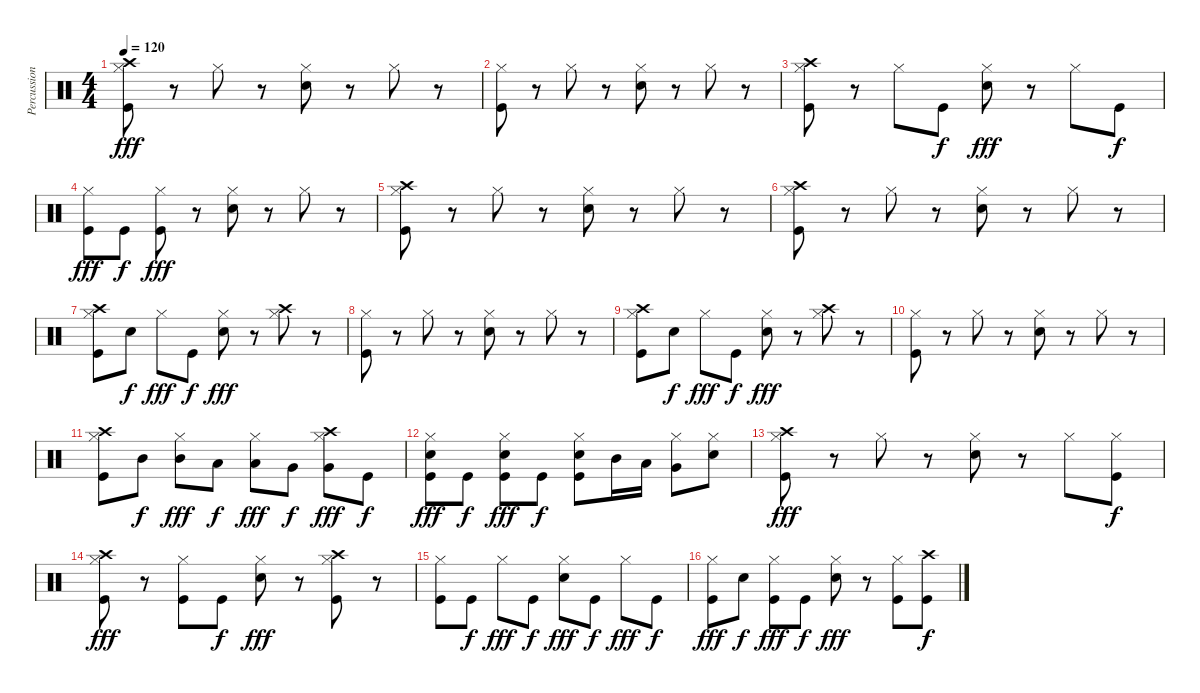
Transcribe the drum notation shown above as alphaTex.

\track ("Percussion" "Percussion") {instrument percussion}
\staff {score}
\articulation defaults
\ts (4 4)
\tempo 120
\clef neutral
\ks c
("Hi-Hat (closed)" "Crash high (hit)" "Kick (hit)").8{dy fff} r.8 "Hi-Hat (closed)".8 r.8 ("Hi-Hat (closed)" "Snare (hit) 2").8 r.8 "Hi-Hat (closed)".8 r.8 |
("Hi-Hat (closed)" "Kick (hit)").8 r.8 "Hi-Hat (closed)".8 r.8 ("Hi-Hat (closed)" "Snare (hit) 2").8 r.8 "Hi-Hat (closed)".8 r.8 |
("Hi-Hat (closed)" "Crash high (hit)" "Kick (hit)").8 r.8 "Hi-Hat (closed)".8 "Kick (hit)".8{dy f} ("Hi-Hat (closed)" "Snare (hit) 2").8{dy fff} r.8 "Hi-Hat (closed)".8 "Kick (hit)".8{dy f} |
("Hi-Hat (closed)" "Kick (hit)").8{dy fff} "Kick (hit)".8{dy f} ("Hi-Hat (closed)" "Kick (hit)").8{dy fff} r.8 ("Hi-Hat (closed)" "Snare (hit) 2").8 r.8 "Hi-Hat (closed)".8 r.8 |
("Hi-Hat (closed)" "Crash high (hit)" "Kick (hit)").8 r.8 "Hi-Hat (closed)".8 r.8 ("Hi-Hat (closed)" "Snare (hit) 2").8 r.8 "Hi-Hat (closed)".8 r.8 |
("Hi-Hat (closed)" "Crash high (hit)" "Kick (hit)").8 r.8 "Hi-Hat (closed)".8 r.8 ("Hi-Hat (closed)" "Snare (hit) 2").8 r.8 "Hi-Hat (closed)".8 r.8 |
("Hi-Hat (closed)" "Crash high (hit)" "Kick (hit)").8 "Snare (hit) 2".8{dy f} "Hi-Hat (closed)".8{dy fff} "Kick (hit)".8{dy f} ("Hi-Hat (closed)" "Snare (hit) 2").8{dy fff} r.8 ("Hi-Hat (closed)" "Crash high (hit)").8 r.8 |
("Hi-Hat (closed)" "Kick (hit)").8 r.8 "Hi-Hat (closed)".8 r.8 ("Hi-Hat (closed)" "Snare (hit) 2").8 r.8 "Hi-Hat (closed)".8 r.8 |
("Hi-Hat (closed)" "Crash high (hit)" "Kick (hit)").8 "Snare (hit) 2".8{dy f} "Hi-Hat (closed)".8{dy fff} "Kick (hit)".8{dy f} ("Hi-Hat (closed)" "Snare (hit) 2").8{dy fff} r.8 ("Hi-Hat (closed)" "Crash high (hit)").8 r.8 |
("Hi-Hat (closed)" "Kick (hit)").8 r.8 "Hi-Hat (closed)".8 r.8 ("Hi-Hat (closed)" "Snare (hit) 2").8 r.8 "Hi-Hat (closed)".8 r.8 |
("Hi-Hat (closed)" "Crash high (hit)" "Kick (hit)").8 "Mid Tom (hit)".8{dy f} ("Hi-Hat (closed)" "Mid Tom (hit)").8{dy fff} "Low Tom (hit)".8{dy f} ("Hi-Hat (closed)" "Low Tom (hit)").8{dy fff} "Very Low Tom (hit)".8{dy f} ("Hi-Hat (closed)" "Crash high (hit)" "Very Low Tom (hit)").8{dy fff} "Kick (hit)".8{dy f} |
("Hi-Hat (closed)" "Snare (hit) 2" "Kick (hit)").8{dy fff} "Kick (hit)".8{dy f} ("Hi-Hat (closed)" "Snare (hit) 2" "Kick (hit)").8{dy fff} "Kick (hit)".8{dy f} ("Hi-Hat (closed)" "Snare (hit) 2" "Kick (hit)").8 "Mid Tom (hit)".16 "Low Tom (hit)".16 ("Hi-Hat (closed)" "Very Low Tom (hit)").8 ("Hi-Hat (closed)" "Snare (hit) 2").8 |
("Hi-Hat (closed)" "Crash high (hit)" "Kick (hit)").8{dy fff} r.8 "Hi-Hat (closed)".8 r.8 ("Hi-Hat (closed)" "Snare (hit) 2").8 r.8 "Hi-Hat (closed)".8 ("Hi-Hat (closed)" "Kick (hit)").8{dy f} |
("Hi-Hat (closed)" "Crash high (hit)" "Kick (hit)").8{dy fff} r.8 ("Hi-Hat (closed)" "Kick (hit)").8 "Kick (hit)".8{dy f} ("Hi-Hat (closed)" "Snare (hit) 2").8{dy fff} r.8 ("Hi-Hat (closed)" "Crash high (hit)" "Kick (hit)").8 r.8 |
("Hi-Hat (closed)" "Kick (hit)").8 "Kick (hit)".8{dy f} "Hi-Hat (closed)".8{dy fff} "Kick (hit)".8{dy f} ("Hi-Hat (closed)" "Snare (hit) 2").8{dy fff} "Kick (hit)".8{dy f} "Hi-Hat (closed)".8{dy fff} "Kick (hit)".8{dy f} |
("Hi-Hat (closed)" "Kick (hit)").8{dy fff} "Snare (hit) 2".8{dy f} ("Hi-Hat (closed)" "Kick (hit)").8{dy fff} "Kick (hit)".8{dy f} ("Hi-Hat (closed)" "Snare (hit) 2").8{dy fff} r.8 ("Hi-Hat (closed)" "Kick (hit)").8 ("Crash high (hit)" "Kick (hit)").8{dy f}
